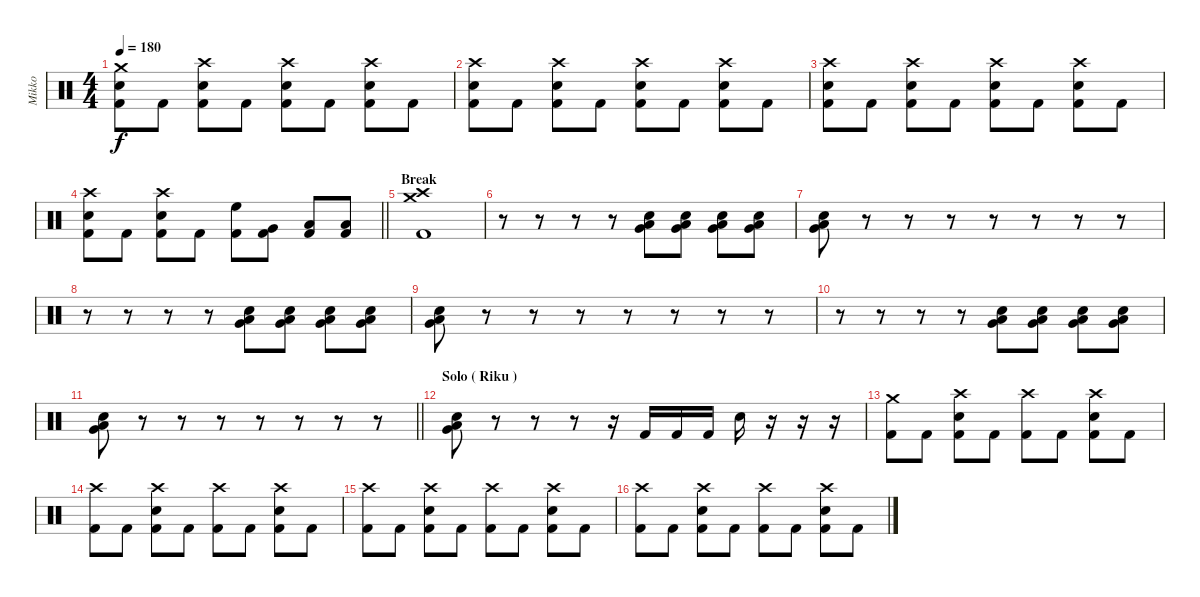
\track ("Mikko" "Mikko") {instrument percussion}
\staff {score}
\articulation defaults
\ts (4 4)
\tempo 180
\clef neutral
\ks c
("Crash medium (hit)" "Electric Snare (hit)" "Kick (hit) 2").8{dy f} "Kick (hit) 2".8 ("Crash high (hit)" "Electric Snare (hit)" "Kick (hit) 2").8 "Kick (hit) 2".8 ("Crash high (hit)" "Electric Snare (hit)" "Kick (hit) 2").8 "Kick (hit) 2".8 ("Crash high (hit)" "Electric Snare (hit)" "Kick (hit) 2").8 "Kick (hit) 2".8 |
("Crash high (hit)" "Electric Snare (hit)" "Kick (hit) 2").8 "Kick (hit) 2".8 ("Crash high (hit)" "Electric Snare (hit)" "Kick (hit) 2").8 "Kick (hit) 2".8 ("Crash high (hit)" "Electric Snare (hit)" "Kick (hit) 2").8 "Kick (hit) 2".8 ("Crash high (hit)" "Electric Snare (hit)" "Kick (hit) 2").8 "Kick (hit) 2".8 |
("Crash high (hit)" "Electric Snare (hit)" "Kick (hit) 2").8 "Kick (hit) 2".8 ("Crash high (hit)" "Electric Snare (hit)" "Kick (hit) 2").8 "Kick (hit) 2".8 ("Crash high (hit)" "Electric Snare (hit)" "Kick (hit) 2").8 "Kick (hit) 2".8 ("Crash high (hit)" "Electric Snare (hit)" "Kick (hit) 2").8 "Kick (hit) 2".8 |
\barLineRight lightlight
("Crash high (hit)" "Electric Snare (hit)" "Kick (hit) 2").8 "Kick (hit) 2".8 ("Crash high (hit)" "Electric Snare (hit)" "Kick (hit) 2").8 "Kick (hit) 2".8 ("High Floor Tom (hit)" "Kick (hit) 2").8 ("Very Low Tom (hit)" "Kick (hit) 2").8 ("Low Floor Tom (hit)" "Kick (hit) 2").8 ("Low Tom (hit)" "Kick (hit) 2").8 |
\section ("" "Break")
("Crash medium (hit)" "Crash high (hit)" "Kick (hit) 2").1 |
r.8 r.8 r.8 r.8 ("Very Low Tom (hit)" "Low Tom (hit)" "Electric Snare (hit)").8 ("Very Low Tom (hit)" "Low Tom (hit)" "Electric Snare (hit)").8 ("Very Low Tom (hit)" "Low Tom (hit)" "Electric Snare (hit)").8 ("Very Low Tom (hit)" "Low Tom (hit)" "Electric Snare (hit)").8 |
("Very Low Tom (hit)" "Low Tom (hit)" "Electric Snare (hit)").8 r.8 r.8 r.8 r.8 r.8 r.8 r.8 |
r.8 r.8 r.8 r.8 ("Very Low Tom (hit)" "Low Tom (hit)" "Electric Snare (hit)").8 ("Very Low Tom (hit)" "Low Tom (hit)" "Electric Snare (hit)").8 ("Very Low Tom (hit)" "Low Tom (hit)" "Electric Snare (hit)").8 ("Very Low Tom (hit)" "Low Tom (hit)" "Electric Snare (hit)").8 |
("Very Low Tom (hit)" "Low Tom (hit)" "Electric Snare (hit)").8 r.8 r.8 r.8 r.8 r.8 r.8 r.8 |
r.8 r.8 r.8 r.8 ("Very Low Tom (hit)" "Low Tom (hit)" "Electric Snare (hit)").8 ("Very Low Tom (hit)" "Low Tom (hit)" "Electric Snare (hit)").8 ("Very Low Tom (hit)" "Low Tom (hit)" "Electric Snare (hit)").8 ("Very Low Tom (hit)" "Low Tom (hit)" "Electric Snare (hit)").8 |
\barLineRight lightlight
("Very Low Tom (hit)" "Low Tom (hit)" "Electric Snare (hit)").8 r.8 r.8 r.8 r.8 r.8 r.8 r.8 |
\section ("" "Solo ( Riku )")
("Very Low Tom (hit)" "Low Tom (hit)" "Electric Snare (hit)").8 r.8 r.8 r.8 r.16 "Kick (hit) 2".16 "Kick (hit) 2".16 "Kick (hit) 2".16 "Electric Snare (hit)".16 r.16 r.16 r.16 |
("Crash medium (hit)" "Kick (hit) 2").8 "Kick (hit) 2".8 ("Crash high (hit)" "Electric Snare (hit)" "Kick (hit) 2").8 "Kick (hit) 2".8 ("Crash high (hit)" "Kick (hit) 2").8 "Kick (hit) 2".8 ("Crash high (hit)" "Electric Snare (hit)" "Kick (hit) 2").8 "Kick (hit) 2".8 |
("Crash high (hit)" "Kick (hit) 2").8 "Kick (hit) 2".8 ("Crash high (hit)" "Electric Snare (hit)" "Kick (hit) 2").8 "Kick (hit) 2".8 ("Crash high (hit)" "Kick (hit) 2").8 "Kick (hit) 2".8 ("Crash high (hit)" "Electric Snare (hit)" "Kick (hit) 2").8 "Kick (hit) 2".8 |
("Crash high (hit)" "Kick (hit) 2").8 "Kick (hit) 2".8 ("Crash high (hit)" "Electric Snare (hit)" "Kick (hit) 2").8 "Kick (hit) 2".8 ("Crash high (hit)" "Kick (hit) 2").8 "Kick (hit) 2".8 ("Crash high (hit)" "Electric Snare (hit)" "Kick (hit) 2").8 "Kick (hit) 2".8 |
("Crash high (hit)" "Kick (hit) 2").8 "Kick (hit) 2".8 ("Crash high (hit)" "Electric Snare (hit)" "Kick (hit) 2").8 "Kick (hit) 2".8 ("Crash high (hit)" "Kick (hit) 2").8 "Kick (hit) 2".8 ("Crash high (hit)" "Electric Snare (hit)" "Kick (hit) 2").8 "Kick (hit) 2".8
